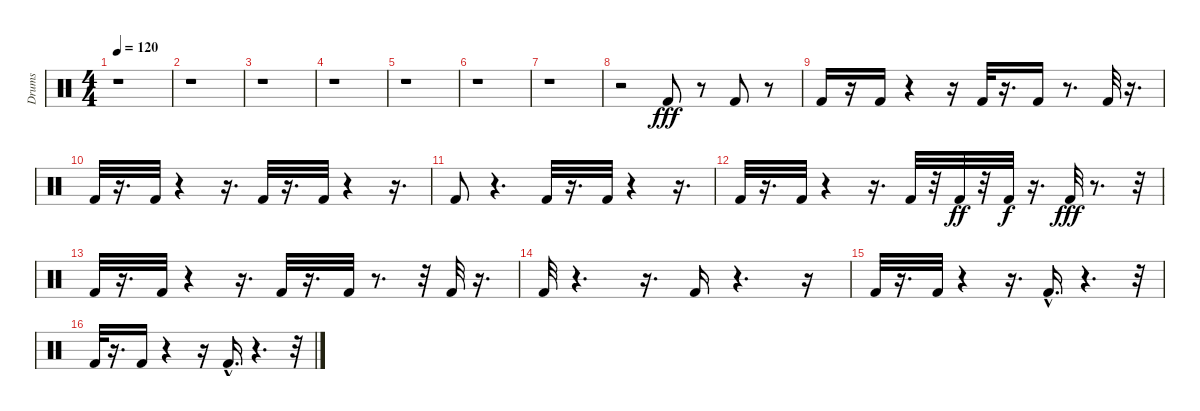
\track ("Drums" "Drums") {instrument percussion}
\staff {score}
\articulation defaults
\ts (4 4)
\tempo 120
\clef neutral
\ks c
r.1{dy fff} |
r.1 |
r.1 |
r.1 |
r.1 |
r.1 |
r.1 |
r.2 "Kick (hit) 2".8 r.8 "Kick (hit) 2".8 r.8 |
"Kick (hit) 2".16 r.16 "Kick (hit) 2".16 r.4 r.16 "Kick (hit) 2".32 r.16{d} "Kick (hit) 2".16 r.8{d} "Kick (hit) 2".32 r.16{d} |
"Kick (hit) 2".32 r.16{d} "Kick (hit) 2".32 r.4 r.16{d} "Kick (hit) 2".32 r.16{d} "Kick (hit) 2".32 r.4 r.16{d} |
"Kick (hit) 2".8 r.4{d} "Kick (hit) 2".32 r.16{d} "Kick (hit) 2".32 r.4 r.16{d} |
"Kick (hit) 2".32 r.16{d} "Kick (hit) 2".32 r.4 r.16{d} "Kick (hit) 2".32 r.32 "Kick (hit) 2".32{dy ff} r.32 "Kick (hit) 2".32{dy f} r.16{d} "Kick (hit) 2".32{dy fff} r.8{d} r.32 |
"Kick (hit) 2".32 r.16{d} "Kick (hit) 2".32 r.4 r.16{d} "Kick (hit) 2".32 r.16{d} "Kick (hit) 2".32 r.8{d} r.32 "Kick (hit) 2".32 r.16{d} |
"Kick (hit) 2".32 r.4{d} r.16{d} "Kick (hit) 2".16 r.4{d} r.16 |
"Kick (hit) 2".32 r.16{d} "Kick (hit) 2".32 r.4 r.16{d} "Kick (hit) 2"{hac}.16{d} r.4{d} r.32 |
"Kick (hit) 2".32 r.16{d} "Kick (hit) 2".16 r.4 r.16 "Kick (hit) 2"{hac}.16{d} r.4{d} r.32
